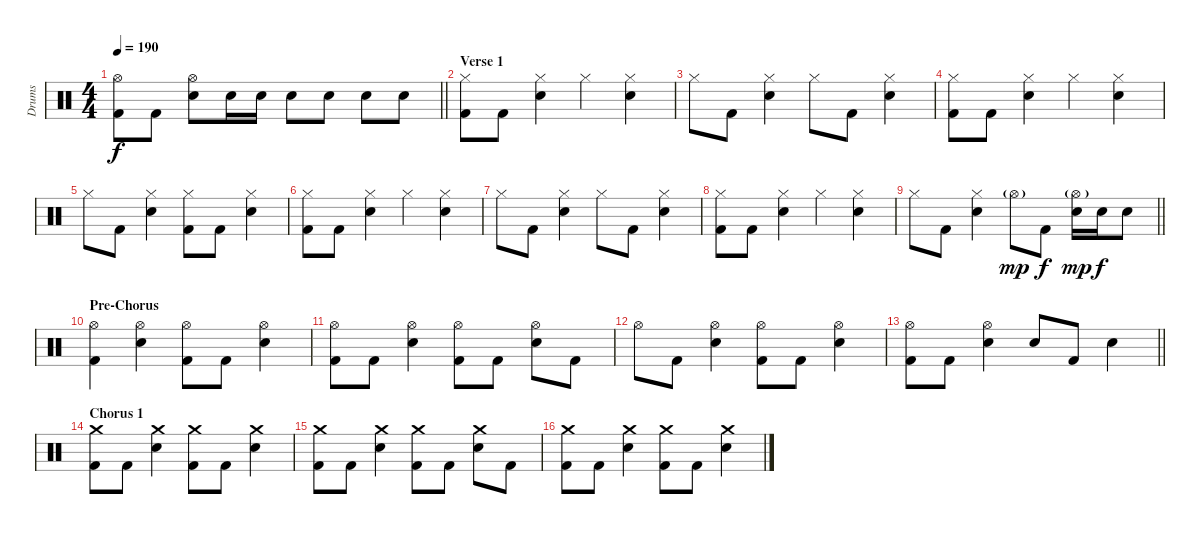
\track ("Drums" "Drums") {instrument percussion}
\staff {score}
\articulation defaults
\ts (4 4)
\tempo 190
\clef neutral
\barLineRight lightlight
\ks c
("Hi-Hat (open)" "Kick (hit) 2").8{dy f} "Kick (hit) 2".8 ("Hi-Hat (open)" "Electric Snare (hit)").8 "Electric Snare (hit)".16 "Electric Snare (hit)".16 "Electric Snare (hit)".8 "Electric Snare (hit)".8 "Electric Snare (hit)".8 "Electric Snare (hit)".8 |
\section ("" "Verse 1")
("Hi-Hat (closed)" "Kick (hit) 2").8 "Kick (hit) 2".8 ("Hi-Hat (closed)" "Electric Snare (hit)").4 "Hi-Hat (closed)".4 ("Hi-Hat (closed)" "Electric Snare (hit)").4 |
"Hi-Hat (closed)".8 "Kick (hit) 2".8 ("Hi-Hat (closed)" "Electric Snare (hit)").4 "Hi-Hat (closed)".8 "Kick (hit) 2".8 ("Hi-Hat (closed)" "Electric Snare (hit)").4 |
("Hi-Hat (closed)" "Kick (hit) 2").8 "Kick (hit) 2".8 ("Hi-Hat (closed)" "Electric Snare (hit)").4 "Hi-Hat (closed)".4 ("Hi-Hat (closed)" "Electric Snare (hit)").4 |
"Hi-Hat (closed)".8 "Kick (hit) 2".8 ("Hi-Hat (closed)" "Electric Snare (hit)").4 ("Hi-Hat (closed)" "Kick (hit) 2").8 "Kick (hit) 2".8 ("Hi-Hat (closed)" "Electric Snare (hit)").4 |
("Hi-Hat (closed)" "Kick (hit) 2").8 "Kick (hit) 2".8 ("Hi-Hat (closed)" "Electric Snare (hit)").4 "Hi-Hat (closed)".4 ("Hi-Hat (closed)" "Electric Snare (hit)").4 |
"Hi-Hat (closed)".8 "Kick (hit) 2".8 ("Hi-Hat (closed)" "Electric Snare (hit)").4 "Hi-Hat (closed)".8 "Kick (hit) 2".8 ("Hi-Hat (closed)" "Electric Snare (hit)").4 |
("Hi-Hat (closed)" "Kick (hit) 2").8 "Kick (hit) 2".8 ("Hi-Hat (closed)" "Electric Snare (hit)").4 "Hi-Hat (closed)".4 ("Hi-Hat (closed)" "Electric Snare (hit)").4 |
\barLineRight lightlight "Hi-Hat (closed)".8 "Kick (hit) 2".8
("Hi-Hat (closed)" "Electric Snare (hit)").4 "Hi-Hat (open)"{g}.8{dy mp} "Kick (hit) 2".8{dy f} ("Hi-Hat (open)"{g} "Electric Snare (hit)").16{dy mp} "Electric Snare (hit)".16{dy f} "Electric Snare (hit)".8 |
\section ("" "Pre-Chorus")
("Hi-Hat (open)" "Kick (hit) 2").4 ("Hi-Hat (open)" "Electric Snare (hit)").4 ("Hi-Hat (open)" "Kick (hit) 2").8 "Kick (hit) 2".8 ("Hi-Hat (open)" "Electric Snare (hit)").4 |
("Hi-Hat (open)" "Kick (hit) 2").8 "Kick (hit) 2".8 ("Hi-Hat (open)" "Electric Snare (hit)").4 ("Hi-Hat (open)" "Kick (hit) 2").8 "Kick (hit) 2".8 ("Hi-Hat (open)" "Electric Snare (hit)").8 "Kick (hit) 2".8 |
"Hi-Hat (open)".8 "Kick (hit) 2".8 ("Hi-Hat (open)" "Electric Snare (hit)").4 ("Hi-Hat (open)" "Kick (hit) 2").8 "Kick (hit) 2".8 ("Hi-Hat (open)" "Electric Snare (hit)").4 |
\barLineRight lightlight
("Hi-Hat (open)" "Kick (hit) 2").8 "Kick (hit) 2".8 ("Hi-Hat (open)" "Electric Snare (hit)").4 "Electric Snare (hit)".8 "Kick (hit) 2".8 "Electric Snare (hit)".4 |
\section ("" "Chorus 1")
("Crash medium (hit)" "Kick (hit) 2").8 "Kick (hit) 2".8 ("Crash medium (hit)" "Electric Snare (hit)").4 ("Crash medium (hit)" "Kick (hit) 2").8 "Kick (hit) 2".8 ("Crash medium (hit)" "Electric Snare (hit)").4 |
("Crash medium (hit)" "Kick (hit) 2").8 "Kick (hit) 2".8 ("Crash medium (hit)" "Electric Snare (hit)").4 ("Crash medium (hit)" "Kick (hit) 2").8 "Kick (hit) 2".8 ("Crash medium (hit)" "Electric Snare (hit)").8 "Kick (hit) 2".8 |
("Crash medium (hit)" "Kick (hit) 2").8 "Kick (hit) 2".8 ("Crash medium (hit)" "Electric Snare (hit)").4 ("Crash medium (hit)" "Kick (hit) 2").8 "Kick (hit) 2".8 ("Crash medium (hit)" "Electric Snare (hit)").4
